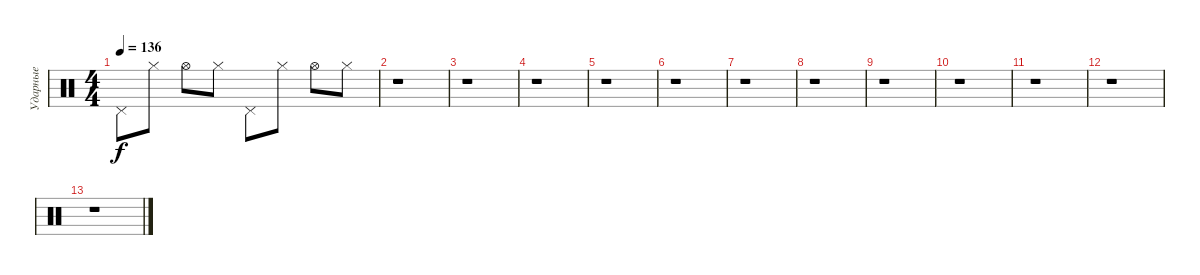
\track ("Ударные" "Ударные") {instrument percussion}
\staff {score}
\articulation defaults
\ts (4 4)
\tempo 136
\clef neutral
\ks c "Pedal Hi-Hat (hit)".8{dy f} "Hi-Hat (closed)".8 "Hi-Hat (open)".8 "Hi-Hat (closed)".8 "Pedal Hi-Hat (hit)".8 "Hi-Hat (closed)".8 "Hi-Hat (open)".8 "Hi-Hat (closed)".8
|
r.1 |
r.1 |
r.1 |
r.1 |
r.1 |
r.1 |
r.1 |
r.1 |
r.1 |
r.1 |
r.1 |
r.1
